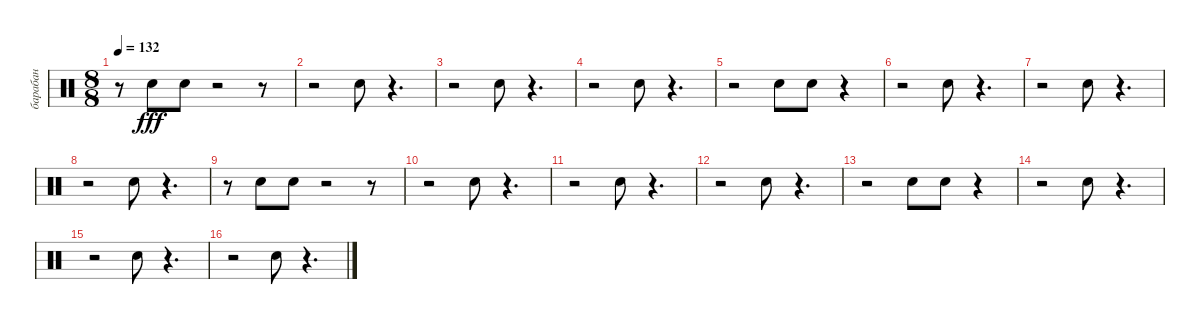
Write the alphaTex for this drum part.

\track ("барабан" "барабан") {instrument percussion}
\staff {score}
\articulation defaults
\ts (8 8)
\tempo 132
\clef neutral
\ks c
r.8{dy fff} "Snare (hit) 2".8 "Snare (hit) 2".8 r.2 r.8 |
r.2 "Snare (hit) 2".8 r.4{d} |
r.2 "Snare (hit) 2".8 r.4{d} |
r.2 "Snare (hit) 2".8 r.4{d} |
r.2 "Snare (hit) 2".8 "Snare (hit) 2".8 r.4 |
r.2 "Snare (hit) 2".8 r.4{d} |
r.2 "Snare (hit) 2".8 r.4{d} |
r.2 "Snare (hit) 2".8 r.4{d} |
r.8 "Snare (hit) 2".8 "Snare (hit) 2".8 r.2 r.8 |
r.2 "Snare (hit) 2".8 r.4{d} |
r.2 "Snare (hit) 2".8 r.4{d} |
r.2 "Snare (hit) 2".8 r.4{d} |
r.2 "Snare (hit) 2".8 "Snare (hit) 2".8 r.4 |
r.2 "Snare (hit) 2".8 r.4{d} |
r.2 "Snare (hit) 2".8 r.4{d} |
r.2 "Snare (hit) 2".8 r.4{d}
